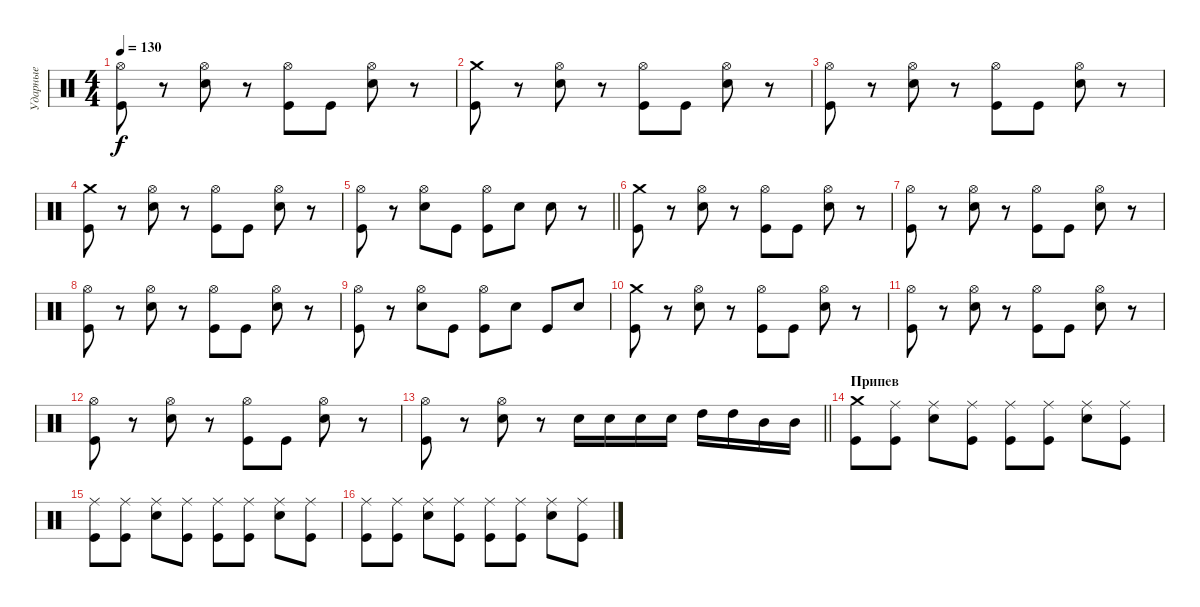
\track ("Ударные" "Ударные") {instrument percussion}
\staff {score}
\articulation defaults
\ts (4 4)
\tempo 130
\clef neutral
\ks c
("Hi-Hat (open)" "Kick (hit)").8{dy f} r.8 ("Hi-Hat (open)" "Electric Snare (hit)").8 r.8 ("Hi-Hat (open)" "Kick (hit)").8 "Kick (hit)".8 ("Hi-Hat (open)" "Electric Snare (hit)").8 r.8 |
("Crash medium (hit)" "Kick (hit)").8 r.8 ("Hi-Hat (open)" "Electric Snare (hit)").8 r.8 ("Hi-Hat (open)" "Kick (hit)").8 "Kick (hit)".8 ("Hi-Hat (open)" "Electric Snare (hit)").8 r.8 |
("Hi-Hat (open)" "Kick (hit)").8 r.8 ("Hi-Hat (open)" "Electric Snare (hit)").8 r.8 ("Hi-Hat (open)" "Kick (hit)").8 "Kick (hit)".8 ("Hi-Hat (open)" "Electric Snare (hit)").8 r.8 |
("Crash medium (hit)" "Kick (hit)").8 r.8 ("Hi-Hat (open)" "Electric Snare (hit)").8 r.8 ("Hi-Hat (open)" "Kick (hit)").8 "Kick (hit)".8 ("Hi-Hat (open)" "Electric Snare (hit)").8 r.8 |
\barLineRight lightlight
("Hi-Hat (open)" "Kick (hit)").8 r.8 ("Hi-Hat (open)" "Electric Snare (hit)").8 "Kick (hit)".8 ("Hi-Hat (open)" "Kick (hit)").8 "Electric Snare (hit)".8 "Electric Snare (hit)".8 r.8 |
\section ("" " ")
("Crash medium (hit)" "Kick (hit)").8 r.8 ("Hi-Hat (open)" "Electric Snare (hit)").8 r.8 ("Hi-Hat (open)" "Kick (hit)").8 "Kick (hit)".8 ("Hi-Hat (open)" "Electric Snare (hit)").8 r.8 |
("Hi-Hat (open)" "Kick (hit)").8 r.8 ("Hi-Hat (open)" "Electric Snare (hit)").8 r.8 ("Hi-Hat (open)" "Kick (hit)").8 "Kick (hit)".8 ("Hi-Hat (open)" "Electric Snare (hit)").8 r.8 |
("Hi-Hat (open)" "Kick (hit)").8 r.8 ("Hi-Hat (open)" "Electric Snare (hit)").8 r.8 ("Hi-Hat (open)" "Kick (hit)").8 "Kick (hit)".8 ("Hi-Hat (open)" "Electric Snare (hit)").8 r.8 |
("Hi-Hat (open)" "Kick (hit)").8 r.8 ("Hi-Hat (open)" "Electric Snare (hit)").8 "Kick (hit)".8 ("Hi-Hat (open)" "Kick (hit)").8 "Electric Snare (hit)".8 "Kick (hit)".8 "Electric Snare (hit)".8 |
("Crash medium (hit)" "Kick (hit)").8 r.8 ("Hi-Hat (open)" "Electric Snare (hit)").8 r.8 ("Hi-Hat (open)" "Kick (hit)").8 "Kick (hit)".8 ("Hi-Hat (open)" "Electric Snare (hit)").8 r.8 |
("Hi-Hat (open)" "Kick (hit)").8 r.8 ("Hi-Hat (open)" "Electric Snare (hit)").8 r.8 ("Hi-Hat (open)" "Kick (hit)").8 "Kick (hit)".8 ("Hi-Hat (open)" "Electric Snare (hit)").8 r.8 |
("Hi-Hat (open)" "Kick (hit)").8 r.8 ("Hi-Hat (open)" "Electric Snare (hit)").8 r.8 ("Hi-Hat (open)" "Kick (hit)").8 "Kick (hit)".8 ("Hi-Hat (open)" "Electric Snare (hit)").8 r.8 |
\barLineRight lightlight
("Hi-Hat (open)" "Kick (hit)").8 r.8 ("Hi-Hat (open)" "Electric Snare (hit)").8 r.8 "Electric Snare (hit)".16 "Electric Snare (hit)".16 "Electric Snare (hit)".16 "Electric Snare (hit)".16 "High Tom (hit)".16 "High Tom (hit)".16 "Mid Tom (hit)".16 "Mid Tom (hit)".16 |
\section ("" "Припев")
("Crash medium (hit)" "Kick (hit)").8 ("Ride (middle)" "Kick (hit)").8 ("Ride (middle)" "Electric Snare (hit)").8 ("Ride (middle)" "Kick (hit)").8 ("Ride (middle)" "Kick (hit)").8 ("Ride (middle)" "Kick (hit)").8 ("Ride (middle)" "Electric Snare (hit)").8 ("Ride (middle)" "Kick (hit)").8 |
("Ride (middle)" "Kick (hit)").8 ("Ride (middle)" "Kick (hit)").8 ("Ride (middle)" "Electric Snare (hit)").8 ("Ride (middle)" "Kick (hit)").8 ("Ride (middle)" "Kick (hit)").8 ("Ride (middle)" "Kick (hit)").8 ("Ride (middle)" "Electric Snare (hit)").8 ("Ride (middle)" "Kick (hit)").8 |
("Ride (middle)" "Kick (hit)").8 ("Ride (middle)" "Kick (hit)").8 ("Ride (middle)" "Electric Snare (hit)").8 ("Ride (middle)" "Kick (hit)").8 ("Ride (middle)" "Kick (hit)").8 ("Ride (middle)" "Kick (hit)").8 ("Ride (middle)" "Electric Snare (hit)").8 ("Ride (middle)" "Kick (hit)").8
